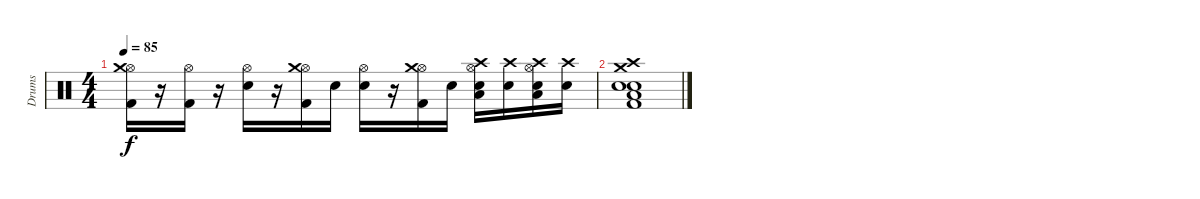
\track ("Drums" "Drums") {instrument percussion}
\staff {score}
\articulation defaults
\ts (4 4)
\tempo 85
\clef neutral
\ks c
("Hi-Hat (open)" "Crash medium (hit)" "Kick (hit) 2").16{dy f} r.16 ("Hi-Hat (open)" "Kick (hit) 2").16 r.16 ("Hi-Hat (open)" "Snare (hit) 2").16 r.16 ("Hi-Hat (open)" "Crash medium (hit)" "Kick (hit) 2").16 "Snare (hit) 2".16 ("Hi-Hat (open)" "Snare (hit) 2").16 r.16 ("Hi-Hat (open)" "Crash medium (hit)" "Kick (hit) 2").16 "Electric Snare (hit)".16 ("Hi-Hat (open)" "Crash high (hit)" "Low Floor Tom (hit)" "Electric Snare (hit)").16 ("Crash high (hit)" "Electric Snare (hit)").16 ("Hi-Hat (open)" "Crash high (hit)" "Low Floor Tom (hit)" "Electric Snare (hit)").16 ("Crash high (hit)" "Electric Snare (hit)").16 |
("Crash medium (hit)" "Crash high (hit)" "Low Floor Tom (hit)" "Electric Snare (hit)" "Snare (hit) 2" "Kick (hit) 2").1
